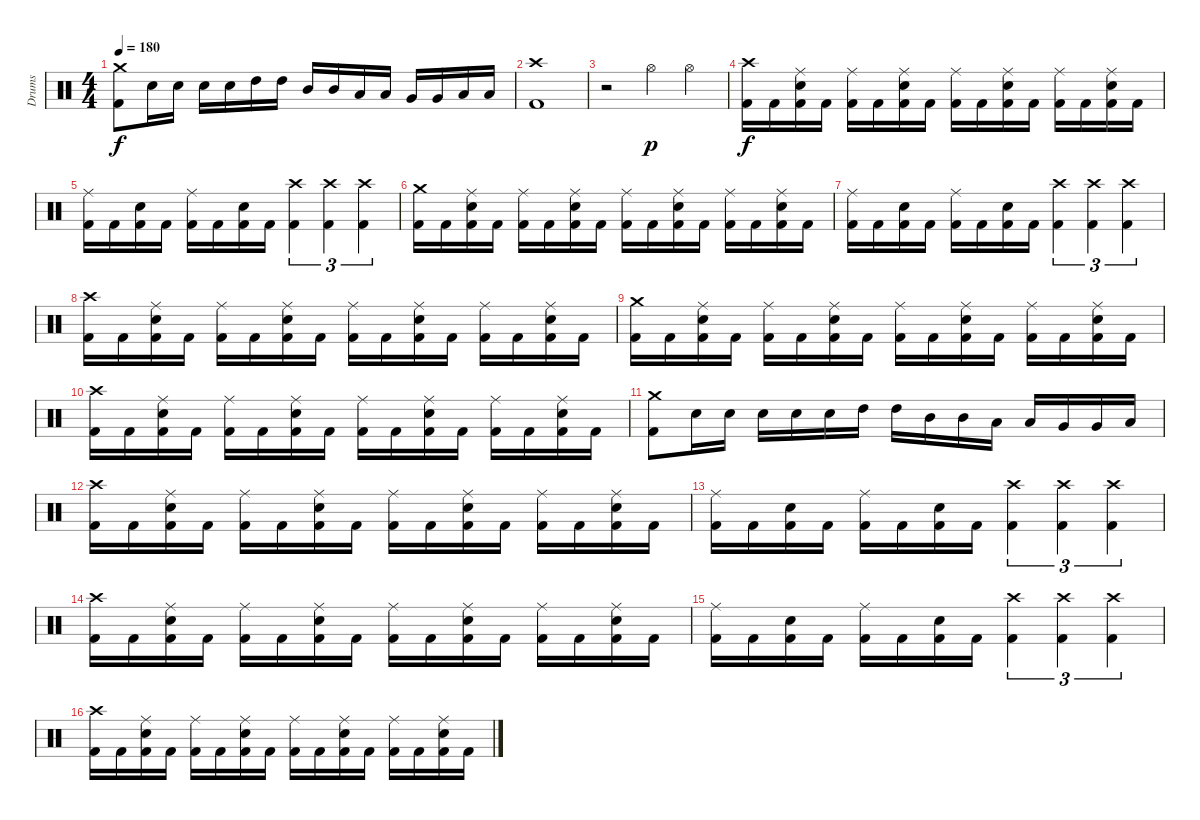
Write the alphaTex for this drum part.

\track ("Drums" "Drums") {instrument percussion}
\staff {score}
\articulation defaults
\ts (4 4)
\tempo 180
\clef neutral
\ks c
("Crash medium (hit)" "Kick (hit) 2").8{dy f} "Electric Snare (hit)".16 "Electric Snare (hit)".16 "Electric Snare (hit)".16 "Electric Snare (hit)".16 "High Tom (hit)".16 "High Tom (hit)".16 "Mid Tom (hit)".16 "Mid Tom (hit)".16 "Low Tom (hit)".16 "Low Tom (hit)".16 "Very Low Tom (hit)".16 "Very Low Tom (hit)".16 "Low Floor Tom (hit)".16 "Low Floor Tom (hit)".16 |
("Crash high (hit)" "Kick (hit) 2").1 |
r.2 "Hi-Hat (open)".4{dy p} "Hi-Hat (open)".4 |
("Crash high (hit)" "Kick (hit) 2").16{dy f} "Kick (hit) 2".16 ("Ride (middle)" "Electric Snare (hit)" "Kick (hit) 2").16 "Kick (hit) 2".16 ("Ride (middle)" "Kick (hit) 2").16 "Kick (hit) 2".16 ("Ride (middle)" "Electric Snare (hit)" "Kick (hit) 2").16 "Kick (hit) 2".16 ("Ride (middle)" "Kick (hit) 2").16 "Kick (hit) 2".16 ("Ride (middle)" "Electric Snare (hit)" "Kick (hit) 2").16 "Kick (hit) 2".16 ("Ride (middle)" "Kick (hit) 2").16 "Kick (hit) 2".16 ("Ride (middle)" "Electric Snare (hit)" "Kick (hit) 2").16 "Kick (hit) 2".16 |
("Ride (middle)" "Kick (hit) 2").16 "Kick (hit) 2".16 ("Electric Snare (hit)" "Kick (hit) 2").16 "Kick (hit) 2".16 ("Ride (middle)" "Kick (hit) 2").16 "Kick (hit) 2".16 ("Electric Snare (hit)" "Kick (hit) 2").16 "Kick (hit) 2".16 ("Crash high (hit)" "Kick (hit) 2").4{tu (3 2)} ("Crash high (hit)" "Kick (hit) 2").4{tu (3 2)} ("Crash high (hit)" "Kick (hit) 2").4{tu (3 2)} |
("Crash medium (hit)" "Kick (hit) 2").16 "Kick (hit) 2".16 ("Ride (middle)" "Electric Snare (hit)" "Kick (hit) 2").16 "Kick (hit) 2".16 ("Ride (middle)" "Kick (hit) 2").16 "Kick (hit) 2".16 ("Ride (middle)" "Electric Snare (hit)" "Kick (hit) 2").16 "Kick (hit) 2".16 ("Ride (middle)" "Kick (hit) 2").16 "Kick (hit) 2".16 ("Ride (middle)" "Electric Snare (hit)" "Kick (hit) 2").16 "Kick (hit) 2".16 ("Ride (middle)" "Kick (hit) 2").16 "Kick (hit) 2".16 ("Ride (middle)" "Electric Snare (hit)" "Kick (hit) 2").16 "Kick (hit) 2".16 |
("Ride (middle)" "Kick (hit) 2").16 "Kick (hit) 2".16 ("Electric Snare (hit)" "Kick (hit) 2").16 "Kick (hit) 2".16 ("Ride (middle)" "Kick (hit) 2").16 "Kick (hit) 2".16 ("Electric Snare (hit)" "Kick (hit) 2").16 "Kick (hit) 2".16 ("Crash high (hit)" "Kick (hit) 2").4{tu (3 2)} ("Crash high (hit)" "Kick (hit) 2").4{tu (3 2)} ("Crash high (hit)" "Kick (hit) 2").4{tu (3 2)} |
("Crash high (hit)" "Kick (hit) 2").16 "Kick (hit) 2".16 ("Ride (middle)" "Electric Snare (hit)" "Kick (hit) 2").16 "Kick (hit) 2".16 ("Ride (middle)" "Kick (hit) 2").16 "Kick (hit) 2".16 ("Ride (middle)" "Electric Snare (hit)" "Kick (hit) 2").16 "Kick (hit) 2".16 ("Ride (middle)" "Kick (hit) 2").16 "Kick (hit) 2".16 ("Ride (middle)" "Electric Snare (hit)" "Kick (hit) 2").16 "Kick (hit) 2".16 ("Ride (middle)" "Kick (hit) 2").16 "Kick (hit) 2".16 ("Ride (middle)" "Electric Snare (hit)" "Kick (hit) 2").16 "Kick (hit) 2".16 |
("Crash medium (hit)" "Kick (hit) 2").16 "Kick (hit) 2".16 ("Ride (middle)" "Electric Snare (hit)" "Kick (hit) 2").16 "Kick (hit) 2".16 ("Ride (middle)" "Kick (hit) 2").16 "Kick (hit) 2".16 ("Ride (middle)" "Electric Snare (hit)" "Kick (hit) 2").16 "Kick (hit) 2".16 ("Ride (middle)" "Kick (hit) 2").16 "Kick (hit) 2".16 ("Ride (middle)" "Electric Snare (hit)" "Kick (hit) 2").16 "Kick (hit) 2".16 ("Ride (middle)" "Kick (hit) 2").16 "Kick (hit) 2".16 ("Ride (middle)" "Electric Snare (hit)" "Kick (hit) 2").16 "Kick (hit) 2".16 |
("Crash high (hit)" "Kick (hit) 2").16 "Kick (hit) 2".16 ("Ride (middle)" "Electric Snare (hit)" "Kick (hit) 2").16 "Kick (hit) 2".16 ("Ride (middle)" "Kick (hit) 2").16 "Kick (hit) 2".16 ("Ride (middle)" "Electric Snare (hit)" "Kick (hit) 2").16 "Kick (hit) 2".16 ("Ride (middle)" "Kick (hit) 2").16 "Kick (hit) 2".16 ("Ride (middle)" "Electric Snare (hit)" "Kick (hit) 2").16 "Kick (hit) 2".16 ("Ride (middle)" "Kick (hit) 2").16 "Kick (hit) 2".16 ("Ride (middle)" "Electric Snare (hit)" "Kick (hit) 2").16 "Kick (hit) 2".16 |
("Crash medium (hit)" "Kick (hit) 2").8 "Electric Snare (hit)".16 "Electric Snare (hit)".16 "Electric Snare (hit)".16 "Electric Snare (hit)".16 "Electric Snare (hit)".16 "High Tom (hit)".16 "High Tom (hit)".16 "Mid Tom (hit)".16 "Mid Tom (hit)".16 "Low Tom (hit)".16 "Low Tom (hit)".16 "Very Low Tom (hit)".16 "Very Low Tom (hit)".16 "Low Floor Tom (hit)".16 |
("Crash high (hit)" "Kick (hit) 2").16 "Kick (hit) 2".16 ("Ride (middle)" "Electric Snare (hit)" "Kick (hit) 2").16 "Kick (hit) 2".16 ("Ride (middle)" "Kick (hit) 2").16 "Kick (hit) 2".16 ("Ride (middle)" "Electric Snare (hit)" "Kick (hit) 2").16 "Kick (hit) 2".16 ("Ride (middle)" "Kick (hit) 2").16 "Kick (hit) 2".16 ("Ride (middle)" "Electric Snare (hit)" "Kick (hit) 2").16 "Kick (hit) 2".16 ("Ride (middle)" "Kick (hit) 2").16 "Kick (hit) 2".16 ("Ride (middle)" "Electric Snare (hit)" "Kick (hit) 2").16 "Kick (hit) 2".16 |
("Ride (middle)" "Kick (hit) 2").16 "Kick (hit) 2".16 ("Electric Snare (hit)" "Kick (hit) 2").16 "Kick (hit) 2".16 ("Ride (middle)" "Kick (hit) 2").16 "Kick (hit) 2".16 ("Electric Snare (hit)" "Kick (hit) 2").16 "Kick (hit) 2".16 ("Crash high (hit)" "Kick (hit) 2").4{tu (3 2)} ("Crash high (hit)" "Kick (hit) 2").4{tu (3 2)} ("Crash high (hit)" "Kick (hit) 2").4{tu (3 2)} |
("Crash high (hit)" "Kick (hit) 2").16 "Kick (hit) 2".16 ("Ride (middle)" "Electric Snare (hit)" "Kick (hit) 2").16 "Kick (hit) 2".16 ("Ride (middle)" "Kick (hit) 2").16 "Kick (hit) 2".16 ("Ride (middle)" "Electric Snare (hit)" "Kick (hit) 2").16 "Kick (hit) 2".16 ("Ride (middle)" "Kick (hit) 2").16 "Kick (hit) 2".16 ("Ride (middle)" "Electric Snare (hit)" "Kick (hit) 2").16 "Kick (hit) 2".16 ("Ride (middle)" "Kick (hit) 2").16 "Kick (hit) 2".16 ("Ride (middle)" "Electric Snare (hit)" "Kick (hit) 2").16 "Kick (hit) 2".16 |
("Ride (middle)" "Kick (hit) 2").16 "Kick (hit) 2".16 ("Electric Snare (hit)" "Kick (hit) 2").16 "Kick (hit) 2".16 ("Ride (middle)" "Kick (hit) 2").16 "Kick (hit) 2".16 ("Electric Snare (hit)" "Kick (hit) 2").16 "Kick (hit) 2".16 ("Crash high (hit)" "Kick (hit) 2").4{tu (3 2)} ("Crash high (hit)" "Kick (hit) 2").4{tu (3 2)} ("Crash high (hit)" "Kick (hit) 2").4{tu (3 2)} |
("Crash high (hit)" "Kick (hit) 2").16 "Kick (hit) 2".16 ("Ride (middle)" "Electric Snare (hit)" "Kick (hit) 2").16 "Kick (hit) 2".16 ("Ride (middle)" "Kick (hit) 2").16 "Kick (hit) 2".16 ("Ride (middle)" "Electric Snare (hit)" "Kick (hit) 2").16 "Kick (hit) 2".16 ("Ride (middle)" "Kick (hit) 2").16 "Kick (hit) 2".16 ("Ride (middle)" "Electric Snare (hit)" "Kick (hit) 2").16 "Kick (hit) 2".16 ("Ride (middle)" "Kick (hit) 2").16 "Kick (hit) 2".16 ("Ride (middle)" "Electric Snare (hit)" "Kick (hit) 2").16 "Kick (hit) 2".16
